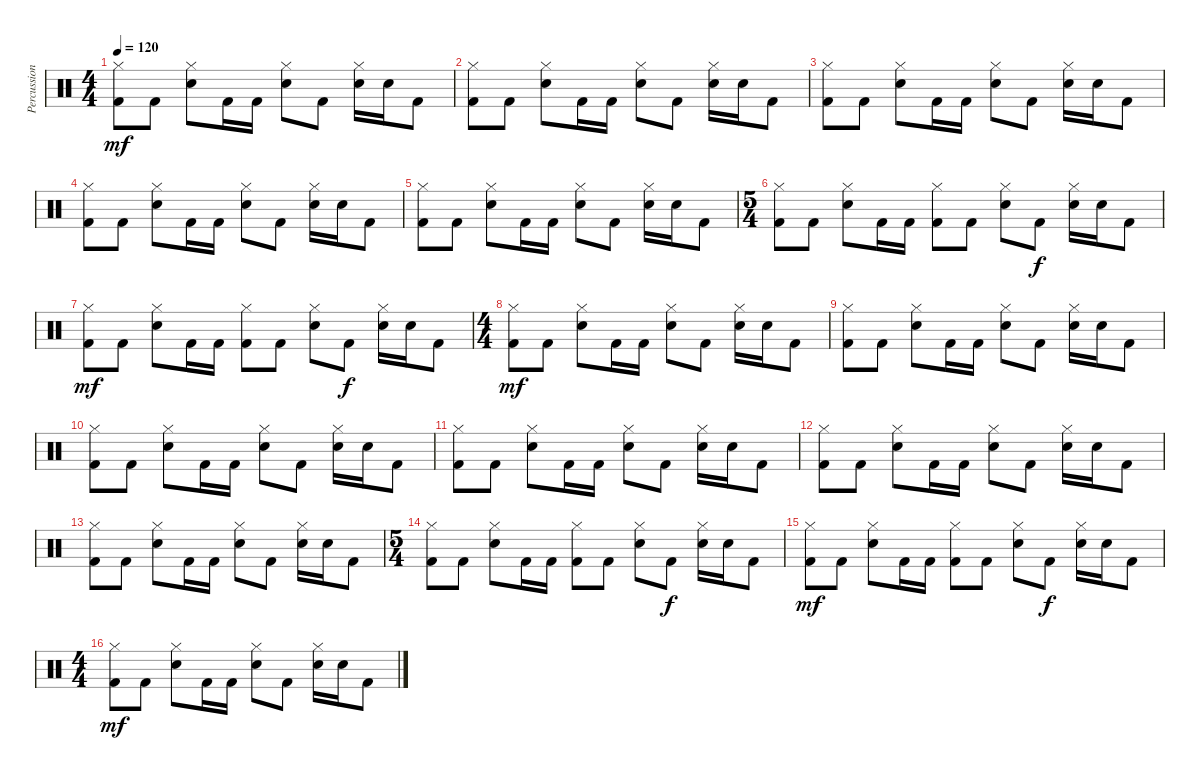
\track ("Percussion" "Percussion") {instrument percussion}
\staff {score}
\articulation defaults
\ts (4 4)
\tempo 120
\clef neutral
\ks c
("Hi-Hat (closed)" "Kick (hit) 2").8{dy mf} "Kick (hit) 2".8 ("Hi-Hat (closed)" "Snare (hit) 2").8 "Kick (hit) 2".16 "Kick (hit) 2".16 ("Hi-Hat (closed)" "Snare (hit) 2").8 "Kick (hit) 2".8 ("Hi-Hat (closed)" "Snare (hit) 2").16 "Snare (hit) 2".16 "Kick (hit) 2".8 |
("Hi-Hat (closed)" "Kick (hit) 2").8 "Kick (hit) 2".8 ("Hi-Hat (closed)" "Snare (hit) 2").8 "Kick (hit) 2".16 "Kick (hit) 2".16 ("Hi-Hat (closed)" "Snare (hit) 2").8 "Kick (hit) 2".8 ("Hi-Hat (closed)" "Snare (hit) 2").16 "Snare (hit) 2".16 "Kick (hit) 2".8 |
("Hi-Hat (closed)" "Kick (hit) 2").8 "Kick (hit) 2".8 ("Hi-Hat (closed)" "Snare (hit) 2").8 "Kick (hit) 2".16 "Kick (hit) 2".16 ("Hi-Hat (closed)" "Snare (hit) 2").8 "Kick (hit) 2".8 ("Hi-Hat (closed)" "Snare (hit) 2").16 "Snare (hit) 2".16 "Kick (hit) 2".8 |
("Hi-Hat (closed)" "Kick (hit) 2").8 "Kick (hit) 2".8 ("Hi-Hat (closed)" "Snare (hit) 2").8 "Kick (hit) 2".16 "Kick (hit) 2".16 ("Hi-Hat (closed)" "Snare (hit) 2").8 "Kick (hit) 2".8 ("Hi-Hat (closed)" "Snare (hit) 2").16 "Snare (hit) 2".16 "Kick (hit) 2".8 |
("Hi-Hat (closed)" "Kick (hit) 2").8 "Kick (hit) 2".8 ("Hi-Hat (closed)" "Snare (hit) 2").8 "Kick (hit) 2".16 "Kick (hit) 2".16 ("Hi-Hat (closed)" "Snare (hit) 2").8 "Kick (hit) 2".8 ("Hi-Hat (closed)" "Snare (hit) 2").16 "Snare (hit) 2".16 "Kick (hit) 2".8 |
\ts (5 4)
("Hi-Hat (closed)" "Kick (hit) 2").8 "Kick (hit) 2".8 ("Hi-Hat (closed)" "Snare (hit) 2").8 "Kick (hit) 2".16 "Kick (hit) 2".16 ("Hi-Hat (closed)" "Kick (hit) 2").8 "Kick (hit) 2".8 ("Hi-Hat (closed)" "Snare (hit) 2").8 "Kick (hit) 2".8{dy f} ("Hi-Hat (closed)" "Snare (hit) 2").16 "Snare (hit) 2".16 "Kick (hit) 2".8 |
("Hi-Hat (closed)" "Kick (hit) 2").8{dy mf} "Kick (hit) 2".8 ("Hi-Hat (closed)" "Snare (hit) 2").8 "Kick (hit) 2".16 "Kick (hit) 2".16 ("Hi-Hat (closed)" "Kick (hit) 2").8 "Kick (hit) 2".8 ("Hi-Hat (closed)" "Snare (hit) 2").8 "Kick (hit) 2".8{dy f} ("Hi-Hat (closed)" "Snare (hit) 2").16 "Snare (hit) 2".16 "Kick (hit) 2".8 |
\ts (4 4)
("Hi-Hat (closed)" "Kick (hit) 2").8{dy mf} "Kick (hit) 2".8 ("Hi-Hat (closed)" "Snare (hit) 2").8 "Kick (hit) 2".16 "Kick (hit) 2".16 ("Hi-Hat (closed)" "Snare (hit) 2").8 "Kick (hit) 2".8 ("Hi-Hat (closed)" "Snare (hit) 2").16 "Snare (hit) 2".16 "Kick (hit) 2".8 |
("Hi-Hat (closed)" "Kick (hit) 2").8 "Kick (hit) 2".8 ("Hi-Hat (closed)" "Snare (hit) 2").8 "Kick (hit) 2".16 "Kick (hit) 2".16 ("Hi-Hat (closed)" "Snare (hit) 2").8 "Kick (hit) 2".8 ("Hi-Hat (closed)" "Snare (hit) 2").16 "Snare (hit) 2".16 "Kick (hit) 2".8 |
("Hi-Hat (closed)" "Kick (hit) 2").8 "Kick (hit) 2".8 ("Hi-Hat (closed)" "Snare (hit) 2").8 "Kick (hit) 2".16 "Kick (hit) 2".16 ("Hi-Hat (closed)" "Snare (hit) 2").8 "Kick (hit) 2".8 ("Hi-Hat (closed)" "Snare (hit) 2").16 "Snare (hit) 2".16 "Kick (hit) 2".8 |
("Hi-Hat (closed)" "Kick (hit) 2").8 "Kick (hit) 2".8 ("Hi-Hat (closed)" "Snare (hit) 2").8 "Kick (hit) 2".16 "Kick (hit) 2".16 ("Hi-Hat (closed)" "Snare (hit) 2").8 "Kick (hit) 2".8 ("Hi-Hat (closed)" "Snare (hit) 2").16 "Snare (hit) 2".16 "Kick (hit) 2".8 |
("Hi-Hat (closed)" "Kick (hit) 2").8 "Kick (hit) 2".8 ("Hi-Hat (closed)" "Snare (hit) 2").8 "Kick (hit) 2".16 "Kick (hit) 2".16 ("Hi-Hat (closed)" "Snare (hit) 2").8 "Kick (hit) 2".8 ("Hi-Hat (closed)" "Snare (hit) 2").16 "Snare (hit) 2".16 "Kick (hit) 2".8 |
("Hi-Hat (closed)" "Kick (hit) 2").8 "Kick (hit) 2".8 ("Hi-Hat (closed)" "Snare (hit) 2").8 "Kick (hit) 2".16 "Kick (hit) 2".16 ("Hi-Hat (closed)" "Snare (hit) 2").8 "Kick (hit) 2".8 ("Hi-Hat (closed)" "Snare (hit) 2").16 "Snare (hit) 2".16 "Kick (hit) 2".8 |
\ts (5 4)
("Hi-Hat (closed)" "Kick (hit) 2").8 "Kick (hit) 2".8 ("Hi-Hat (closed)" "Snare (hit) 2").8 "Kick (hit) 2".16 "Kick (hit) 2".16 ("Hi-Hat (closed)" "Kick (hit) 2").8 "Kick (hit) 2".8 ("Hi-Hat (closed)" "Snare (hit) 2").8 "Kick (hit) 2".8{dy f} ("Hi-Hat (closed)" "Snare (hit) 2").16 "Snare (hit) 2".16 "Kick (hit) 2".8 |
("Hi-Hat (closed)" "Kick (hit) 2").8{dy mf} "Kick (hit) 2".8 ("Hi-Hat (closed)" "Snare (hit) 2").8 "Kick (hit) 2".16 "Kick (hit) 2".16 ("Hi-Hat (closed)" "Kick (hit) 2").8 "Kick (hit) 2".8 ("Hi-Hat (closed)" "Snare (hit) 2").8 "Kick (hit) 2".8{dy f} ("Hi-Hat (closed)" "Snare (hit) 2").16 "Snare (hit) 2".16 "Kick (hit) 2".8 |
\ts (4 4)
("Hi-Hat (closed)" "Kick (hit) 2").8{dy mf} "Kick (hit) 2".8 ("Hi-Hat (closed)" "Snare (hit) 2").8 "Kick (hit) 2".16 "Kick (hit) 2".16 ("Hi-Hat (closed)" "Snare (hit) 2").8 "Kick (hit) 2".8 ("Hi-Hat (closed)" "Snare (hit) 2").16 "Snare (hit) 2".16 "Kick (hit) 2".8
